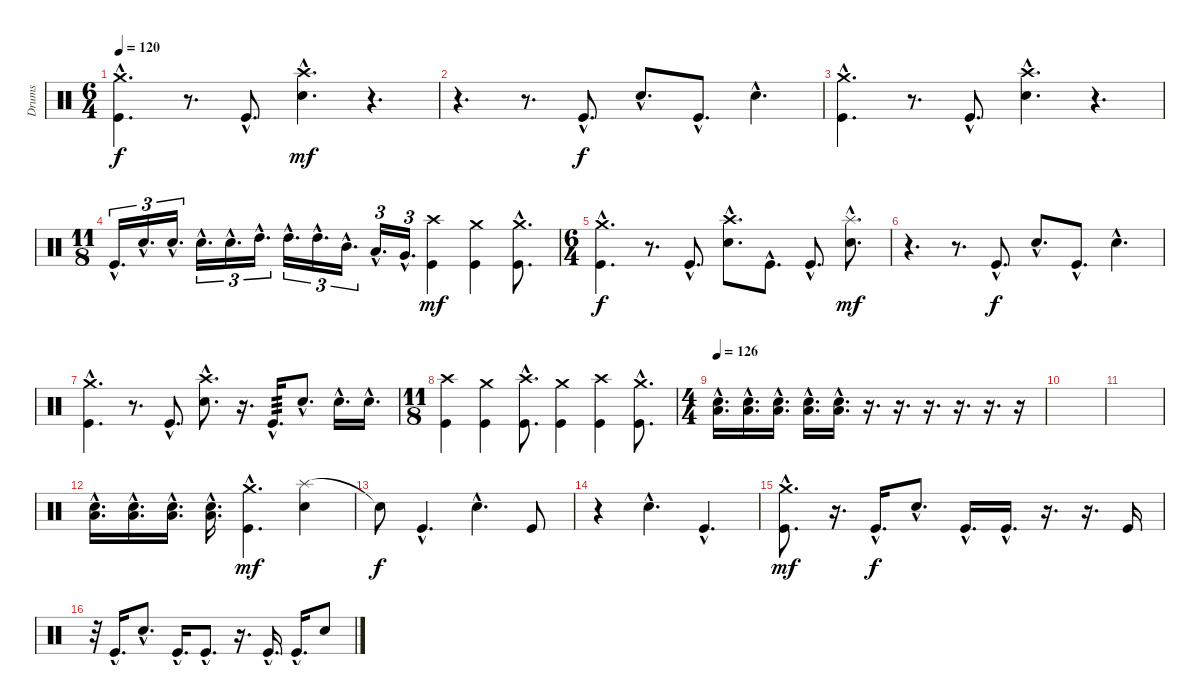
\track ("Drums" "Drums") {instrument percussion}
\staff {score}
\articulation defaults
\ts (6 4)
\tempo 120
\clef neutral
\ks c
("Crash medium (hit)"{hac} "Kick (hit)"{hac}).4{d dy f} r.8{d} "Kick (hit)"{hac}.8{d} ("Crash high (hit)"{hac} "Electric Snare (hit)"{hac}).4{d dy mf} r.4{d} |
r.4{d} r.8{d} "Kick (hit)"{hac}.8{d dy f} "Electric Snare (hit)"{hac}.8{d} "Kick (hit)"{hac}.8{d} "Electric Snare (hit)"{hac}.4{d} |
("Crash medium (hit)"{hac} "Kick (hit)"{hac}).4{d} r.8{d} "Kick (hit)"{hac}.8{d} ("Crash high (hit)"{hac} "Electric Snare (hit)"{hac}).4{d} r.4{d} |
\ts (11 8)
"Kick (hit)"{hac}.16{d tu (3 2)} "Electric Snare (hit)"{hac}.16{d tu (3 2)} "Electric Snare (hit)"{hac}.16{d tu (3 2)} "Electric Snare (hit)"{hac}.16{d tu (3 2)} "Electric Snare (hit)"{hac}.16{d tu (3 2)} "High Tom (hit)"{hac}.16{d tu (3 2)} "High Tom (hit)"{hac}.16{d tu (3 2)} "High Tom (hit)"{hac}.16{d tu (3 2)} "Mid Tom (hit)"{hac}.16{d tu (3 2)} "Low Tom (hit)"{hac}.16{d tu (3 2)} "Very Low Tom (hit)"{hac}.16{d tu (3 2)} ("Crash high (hit)" "Kick (hit)").4{dy mf} ("Crash medium (hit)" "Kick (hit)").4 ("Crash medium (hit)"{hac} "Kick (hit)"{hac}).8{d} |
\ts (6 4)
("Crash medium (hit)"{hac} "Kick (hit)"{hac}).4{d dy f} r.8{d} "Kick (hit)"{hac}.8{d} ("Crash high (hit)"{hac} "Electric Snare (hit)"{hac}).8{d} "Kick (hit)"{hac}.8{d} "Kick (hit)"{hac}.8{d} ("Splash (hit)"{hac} "Electric Snare (hit)"{hac}).8{d dy mf} |
r.4{d} r.8{d} "Kick (hit)"{hac}.8{d dy f} "Electric Snare (hit)"{hac}.8{d} "Kick (hit)"{hac}.8{d} "Electric Snare (hit)"{hac}.4{d} |
("Crash medium (hit)"{hac} "Kick (hit)"{hac}).4{d} r.8{d} "Kick (hit)"{hac}.8{d} ("Crash high (hit)"{hac} "Electric Snare (hit)"{hac}).8{d} r.16{d} "Kick (hit)"{hac}.16{d tp 3} "Electric Snare (hit)"{hac}.8{d} "Electric Snare (hit)"{hac}.16{d} "Electric Snare (hit)"{hac}.16{d} |
\ts (11 8)
("Crash high (hit)" "Kick (hit)").4 ("Crash medium (hit)" "Kick (hit)").4 ("Crash high (hit)"{hac} "Kick (hit)"{hac}).8{d} ("Crash medium (hit)" "Kick (hit)").4 ("Crash high (hit)" "Kick (hit)").4 ("Crash medium (hit)"{hac} "Kick (hit)"{hac}).8{d} |
\ts (4 4)
\section ("" "")
\tempo 126
("Electric Snare (hit)"{hac} "Low Floor Tom (hit)"{hac}).16{d} ("Electric Snare (hit)"{hac} "Low Floor Tom (hit)"{hac}).16{d} ("Electric Snare (hit)"{hac} "Low Floor Tom (hit)"{hac}).16{d} ("Electric Snare (hit)"{hac} "Low Floor Tom (hit)"{hac}).16{d} ("Electric Snare (hit)"{hac} "Low Floor Tom (hit)"{hac}).16{d} r.16{d} r.16{d} r.16{d} r.16{d} r.16{d} r.16 |
|
|
("Electric Snare (hit)"{hac} "Low Floor Tom (hit)"{hac}).16{d} ("Electric Snare (hit)"{hac} "Low Floor Tom (hit)"{hac}).16{d} ("Electric Snare (hit)"{hac} "Low Floor Tom (hit)"{hac}).16{d} ("Electric Snare (hit)"{hac} "Low Floor Tom (hit)"{hac}).16{d} ("Crash medium (hit)"{hac} "Kick (hit)"{hac}).4{d dy mf} ("Splash (hit)" "Electric Snare (hit)").4 |
"Snare (hit)"{t}.8{dy f} "Kick (hit)"{hac}.4{d} "Electric Snare (hit)"{hac}.4{d} "Kick (hit)".8 |
r.4 "Electric Snare (hit)"{hac}.4{d} "Kick (hit)"{hac}.4{d} |
("Crash medium (hit)"{hac} "Kick (hit)"{hac}).8{d dy mf} r.16{d} "Kick (hit)"{hac}.16{d dy f} "Electric Snare (hit)"{hac}.8{d} "Kick (hit)"{hac}.16{d} "Kick (hit)"{hac}.16{d} r.16{d} r.16{d} "Kick (hit)".16 |
r.32 "Kick (hit)"{hac}.16{d} "Electric Snare (hit)"{hac}.8{d} "Kick (hit)"{hac}.16{d} "Kick (hit)"{hac}.8{d} r.16{d} "Kick (hit)"{hac}.16{d} "Kick (hit)"{hac}.16{d} "Electric Snare (hit)".8
